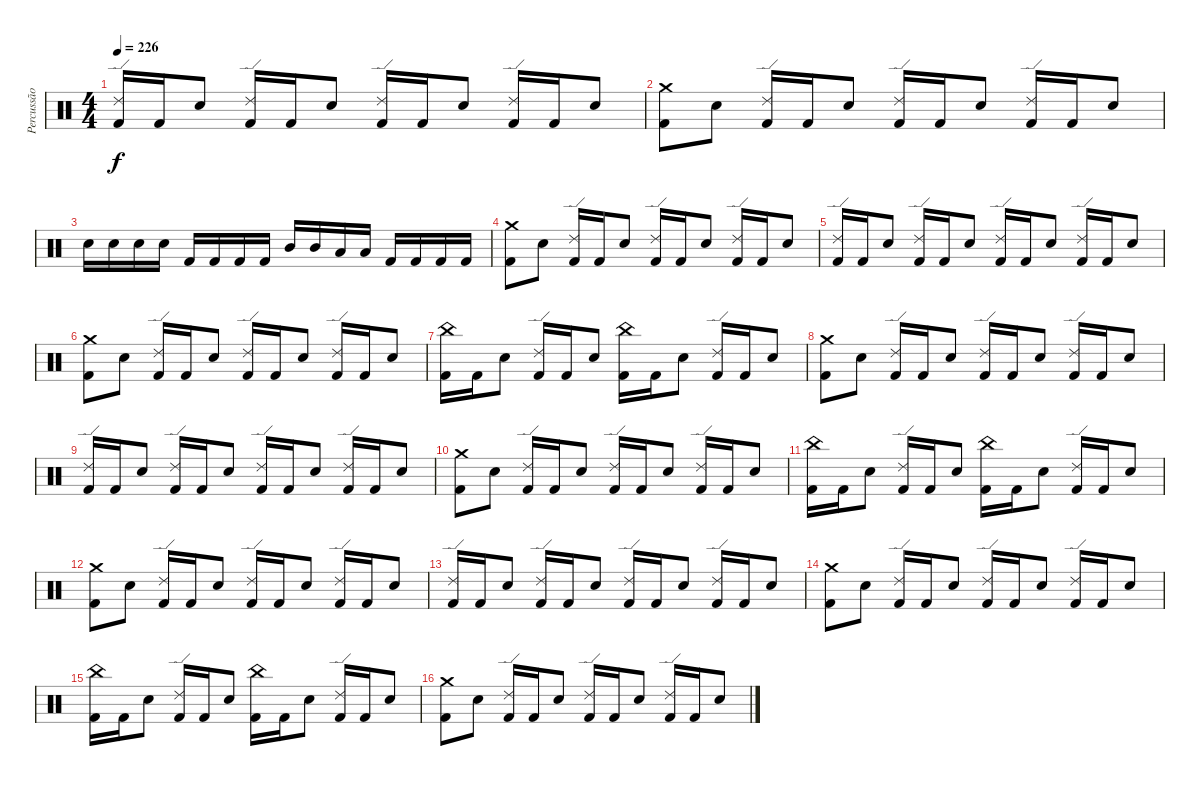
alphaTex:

\track ("Percussão" "Percussão") {instrument percussion}
\staff {score}
\articulation defaults
\ts (4 4)
\tempo 226
\clef neutral
\ks c
("Ride (edge) 2" "Kick (hit) 2").16{dy f} "Kick (hit) 2".16 "Electric Snare (hit)".8 ("Ride (edge) 2" "Kick (hit) 2").16 "Kick (hit) 2".16 "Electric Snare (hit)".8 ("Ride (edge) 2" "Kick (hit) 2").16 "Kick (hit) 2".16 "Electric Snare (hit)".8 ("Ride (edge) 2" "Kick (hit) 2").16 "Kick (hit) 2".16 "Electric Snare (hit)".8 |
("Crash medium (hit)" "Kick (hit) 2").8 "Electric Snare (hit)".8 ("Ride (edge) 2" "Kick (hit) 2").16 "Kick (hit) 2".16 "Electric Snare (hit)".8 ("Ride (edge) 2" "Kick (hit) 2").16 "Kick (hit) 2".16 "Electric Snare (hit)".8 ("Ride (edge) 2" "Kick (hit) 2").16 "Kick (hit) 2".16 "Electric Snare (hit)".8 |
"Electric Snare (hit)".16 "Electric Snare (hit)".16 "Electric Snare (hit)".16 "Electric Snare (hit)".16 "Kick (hit) 2".16 "Kick (hit) 2".16 "Kick (hit) 2".16 "Kick (hit) 2".16 "Mid Tom (hit)".16 "Mid Tom (hit)".16 "Low Tom (hit)".16 "Low Tom (hit)".16 "Kick (hit) 2".16 "Kick (hit) 2".16 "Kick (hit) 2".16 "Kick (hit) 2".16 |
("Crash medium (hit)" "Kick (hit) 2").8 "Electric Snare (hit)".8 ("Ride (edge) 2" "Kick (hit) 2").16 "Kick (hit) 2".16 "Electric Snare (hit)".8 ("Ride (edge) 2" "Kick (hit) 2").16 "Kick (hit) 2".16 "Electric Snare (hit)".8 ("Ride (edge) 2" "Kick (hit) 2").16 "Kick (hit) 2".16 "Electric Snare (hit)".8 |
("Ride (edge) 2" "Kick (hit) 2").16 "Kick (hit) 2".16 "Electric Snare (hit)".8 ("Ride (edge) 2" "Kick (hit) 2").16 "Kick (hit) 2".16 "Electric Snare (hit)".8 ("Ride (edge) 2" "Kick (hit) 2").16 "Kick (hit) 2".16 "Electric Snare (hit)".8 ("Ride (edge) 2" "Kick (hit) 2").16 "Kick (hit) 2".16 "Electric Snare (hit)".8 |
("Crash medium (hit)" "Kick (hit) 2").8 "Electric Snare (hit)".8 ("Ride (edge) 2" "Kick (hit) 2").16 "Kick (hit) 2".16 "Electric Snare (hit)".8 ("Ride (edge) 2" "Kick (hit) 2").16 "Kick (hit) 2".16 "Electric Snare (hit)".8 ("Ride (edge) 2" "Kick (hit) 2").16 "Kick (hit) 2".16 "Electric Snare (hit)".8 |
("China (hit)" "Kick (hit) 2").16 "Kick (hit) 2".16 "Electric Snare (hit)".8 ("Ride (edge) 2" "Kick (hit) 2").16 "Kick (hit) 2".16 "Electric Snare (hit)".8 ("China (hit)" "Kick (hit) 2").16 "Kick (hit) 2".16 "Electric Snare (hit)".8 ("Ride (edge) 2" "Kick (hit) 2").16 "Kick (hit) 2".16 "Electric Snare (hit)".8 |
("Crash medium (hit)" "Kick (hit) 2").8 "Electric Snare (hit)".8 ("Ride (edge) 2" "Kick (hit) 2").16 "Kick (hit) 2".16 "Electric Snare (hit)".8 ("Ride (edge) 2" "Kick (hit) 2").16 "Kick (hit) 2".16 "Electric Snare (hit)".8 ("Ride (edge) 2" "Kick (hit) 2").16 "Kick (hit) 2".16 "Electric Snare (hit)".8 |
("Ride (edge) 2" "Kick (hit) 2").16 "Kick (hit) 2".16 "Electric Snare (hit)".8 ("Ride (edge) 2" "Kick (hit) 2").16 "Kick (hit) 2".16 "Electric Snare (hit)".8 ("Ride (edge) 2" "Kick (hit) 2").16 "Kick (hit) 2".16 "Electric Snare (hit)".8 ("Ride (edge) 2" "Kick (hit) 2").16 "Kick (hit) 2".16 "Electric Snare (hit)".8 |
("Crash medium (hit)" "Kick (hit) 2").8 "Electric Snare (hit)".8 ("Ride (edge) 2" "Kick (hit) 2").16 "Kick (hit) 2".16 "Electric Snare (hit)".8 ("Ride (edge) 2" "Kick (hit) 2").16 "Kick (hit) 2".16 "Electric Snare (hit)".8 ("Ride (edge) 2" "Kick (hit) 2").16 "Kick (hit) 2".16 "Electric Snare (hit)".8 |
("China (hit)" "Kick (hit) 2").16 "Kick (hit) 2".16 "Electric Snare (hit)".8 ("Ride (edge) 2" "Kick (hit) 2").16 "Kick (hit) 2".16 "Electric Snare (hit)".8 ("China (hit)" "Kick (hit) 2").16 "Kick (hit) 2".16 "Electric Snare (hit)".8 ("Ride (edge) 2" "Kick (hit) 2").16 "Kick (hit) 2".16 "Electric Snare (hit)".8 |
("Crash medium (hit)" "Kick (hit) 2").8 "Electric Snare (hit)".8 ("Ride (edge) 2" "Kick (hit) 2").16 "Kick (hit) 2".16 "Electric Snare (hit)".8 ("Ride (edge) 2" "Kick (hit) 2").16 "Kick (hit) 2".16 "Electric Snare (hit)".8 ("Ride (edge) 2" "Kick (hit) 2").16 "Kick (hit) 2".16 "Electric Snare (hit)".8 |
("Ride (edge) 2" "Kick (hit) 2").16 "Kick (hit) 2".16 "Electric Snare (hit)".8 ("Ride (edge) 2" "Kick (hit) 2").16 "Kick (hit) 2".16 "Electric Snare (hit)".8 ("Ride (edge) 2" "Kick (hit) 2").16 "Kick (hit) 2".16 "Electric Snare (hit)".8 ("Ride (edge) 2" "Kick (hit) 2").16 "Kick (hit) 2".16 "Electric Snare (hit)".8 |
("Crash medium (hit)" "Kick (hit) 2").8 "Electric Snare (hit)".8 ("Ride (edge) 2" "Kick (hit) 2").16 "Kick (hit) 2".16 "Electric Snare (hit)".8 ("Ride (edge) 2" "Kick (hit) 2").16 "Kick (hit) 2".16 "Electric Snare (hit)".8 ("Ride (edge) 2" "Kick (hit) 2").16 "Kick (hit) 2".16 "Electric Snare (hit)".8 |
("China (hit)" "Kick (hit) 2").16 "Kick (hit) 2".16 "Electric Snare (hit)".8 ("Ride (edge) 2" "Kick (hit) 2").16 "Kick (hit) 2".16 "Electric Snare (hit)".8 ("China (hit)" "Kick (hit) 2").16 "Kick (hit) 2".16 "Electric Snare (hit)".8 ("Ride (edge) 2" "Kick (hit) 2").16 "Kick (hit) 2".16 "Electric Snare (hit)".8 |
("Crash medium (hit)" "Kick (hit) 2").8 "Electric Snare (hit)".8 ("Ride (edge) 2" "Kick (hit) 2").16 "Kick (hit) 2".16 "Electric Snare (hit)".8 ("Ride (edge) 2" "Kick (hit) 2").16 "Kick (hit) 2".16 "Electric Snare (hit)".8 ("Ride (edge) 2" "Kick (hit) 2").16 "Kick (hit) 2".16 "Electric Snare (hit)".8
